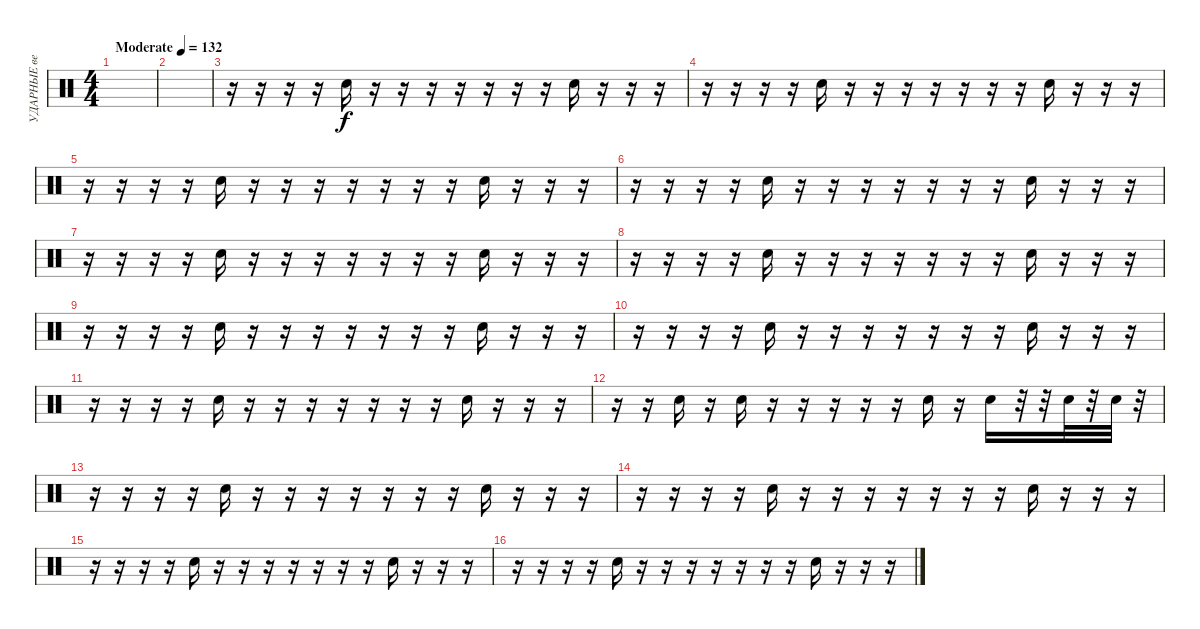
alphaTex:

\track ("УДАРНЫЕ ведущий" "УДАРНЫЕ ве") {instrument percussion}
\staff {score}
\articulation defaults
\ts (4 4)
\tempo (132 "Moderate")
\clef neutral
\ks c
|
|
r.16 r.16 r.16 r.16 "Snare (hit) 2".16 r.16 r.16 r.16 r.16 r.16 r.16 r.16 "Snare (hit) 2".16 r.16 r.16 r.16 |
r.16 r.16 r.16 r.16 "Snare (hit) 2".16 r.16 r.16 r.16 r.16 r.16 r.16 r.16 "Snare (hit) 2".16 r.16 r.16 r.16 |
r.16 r.16 r.16 r.16 "Snare (hit) 2".16 r.16 r.16 r.16 r.16 r.16 r.16 r.16 "Snare (hit) 2".16 r.16 r.16 r.16 |
r.16 r.16 r.16 r.16 "Snare (hit) 2".16 r.16 r.16 r.16 r.16 r.16 r.16 r.16 "Snare (hit) 2".16 r.16 r.16 r.16 |
r.16 r.16 r.16 r.16 "Snare (hit) 2".16 r.16 r.16 r.16 r.16 r.16 r.16 r.16 "Snare (hit) 2".16 r.16 r.16 r.16 |
r.16 r.16 r.16 r.16 "Snare (hit) 2".16 r.16 r.16 r.16 r.16 r.16 r.16 r.16 "Snare (hit) 2".16 r.16 r.16 r.16 |
r.16 r.16 r.16 r.16 "Snare (hit) 2".16 r.16 r.16 r.16 r.16 r.16 r.16 r.16 "Snare (hit) 2".16 r.16 r.16 r.16 |
r.16 r.16 r.16 r.16 "Snare (hit) 2".16 r.16 r.16 r.16 r.16 r.16 r.16 r.16 "Snare (hit) 2".16 r.16 r.16 r.16 |
r.16 r.16 r.16 r.16 "Snare (hit) 2".16 r.16 r.16 r.16 r.16 r.16 r.16 r.16 "Snare (hit) 2".16 r.16 r.16 r.16 |
r.16 r.16 "Snare (hit) 2".16 r.16 "Snare (hit) 2".16 r.16 r.16 r.16 r.16 r.16 "Snare (hit) 2".16 r.16 "Snare (hit) 2".16 r.32 r.32 "Snare (hit) 2".32 r.32 "Snare (hit) 2".32 r.32 |
r.16 r.16 r.16 r.16 "Snare (hit) 2".16 r.16 r.16 r.16 r.16 r.16 r.16 r.16 "Snare (hit) 2".16 r.16 r.16 r.16 |
r.16 r.16 r.16 r.16 "Snare (hit) 2".16 r.16 r.16 r.16 r.16 r.16 r.16 r.16 "Snare (hit) 2".16 r.16 r.16 r.16 |
r.16 r.16 r.16 r.16 "Snare (hit) 2".16 r.16 r.16 r.16 r.16 r.16 r.16 r.16 "Snare (hit) 2".16 r.16 r.16 r.16 |
r.16 r.16 r.16 r.16 "Snare (hit) 2".16 r.16 r.16 r.16 r.16 r.16 r.16 r.16 "Snare (hit) 2".16 r.16 r.16 r.16
